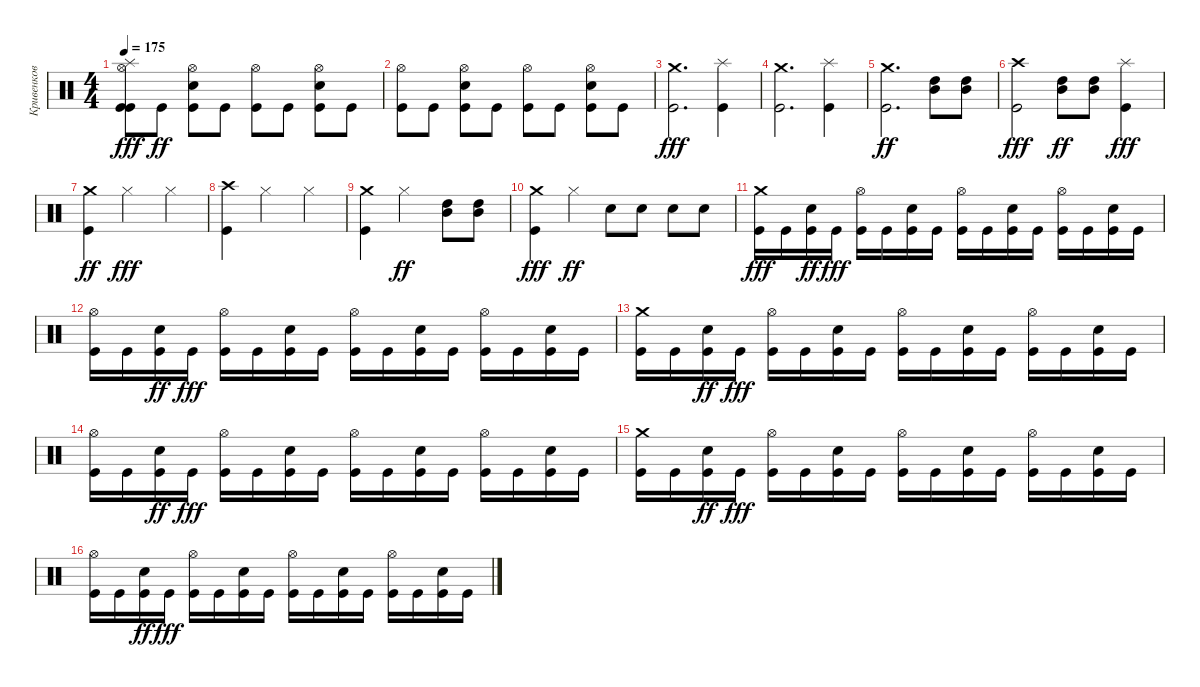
\track ("Кривенков" "Кривенков") {instrument percussion}
\staff {score}
\articulation defaults
\ts (4 4)
\tempo 175
\clef neutral
\ks c
("Hi-Hat (open)" "Kick (hit)" "Splash (hit)" "Kick (hit)").8{dy fff} "Kick (hit)".8{dy ff} ("Hi-Hat (open)" "Snare (hit) 2" "Kick (hit)").8 "Kick (hit)".8 ("Hi-Hat (open)" "Kick (hit)").8 "Kick (hit)".8 ("Hi-Hat (open)" "Snare (hit) 2" "Kick (hit)").8 "Kick (hit)".8 |
("Hi-Hat (open)" "Kick (hit)").8 "Kick (hit)".8 ("Hi-Hat (open)" "Snare (hit) 2" "Kick (hit)").8 "Kick (hit)".8 ("Hi-Hat (open)" "Kick (hit)").8 "Kick (hit)".8 ("Hi-Hat (open)" "Snare (hit) 2" "Kick (hit)").8 "Kick (hit)".8 |
("Crash medium (hit)" "Kick (hit)").2{d dy fff} ("Splash (hit)" "Kick (hit)").4 |
("Crash medium (hit)" "Kick (hit)").2{d} ("Splash (hit)" "Kick (hit)").4 |
("Kick (hit)" "Crash medium (hit)").2{d dy ff} ("Mid Tom (hit)" "High Tom (hit)").8 ("High Tom (hit)" "Mid Tom (hit)").8 |
("Crash high (hit)" "Kick (hit)").2{dy fff} ("High Tom (hit)" "Mid Tom (hit)").8{dy ff} ("High Tom (hit)" "Mid Tom (hit)").8 ("Splash (hit)" "Kick (hit)").4{dy fff} |
("Kick (hit)" "Crash medium (hit)").4{dy ff} "Hi-Hat (closed)".2{dy fff} "Hi-Hat (closed)".4 |
("Crash high (hit)" "Kick (hit)").4 "Hi-Hat (closed)".2 "Hi-Hat (closed)".4 |
("Crash medium (hit)" "Kick (hit)").4 "Hi-Hat (closed)".2{dy ff} ("High Tom (hit)" "Mid Tom (hit)").8 ("High Tom (hit)" "Mid Tom (hit)").8 |
("Crash medium (hit)" "Kick (hit)").4{dy fff} "Hi-Hat (closed)".4{dy ff} "Snare (hit) 2".8 "Snare (hit) 2".8 "Snare (hit) 2".8 "Snare (hit) 2".8 |
("Crash medium (hit)" "Kick (hit)").16{dy fff} "Kick (hit)".16 ("Kick (hit)" "Snare (hit) 2").16{dy ff} "Kick (hit)".16{dy fff} ("Hi-Hat (open)" "Kick (hit)").16 "Kick (hit)".16 ("Snare (hit) 2" "Kick (hit)").16 "Kick (hit)".16 ("Hi-Hat (open)" "Kick (hit)").16 "Kick (hit)".16 ("Snare (hit) 2" "Kick (hit)").16 "Kick (hit)".16 ("Hi-Hat (open)" "Kick (hit)").16 "Kick (hit)".16 ("Snare (hit) 2" "Kick (hit)").16 "Kick (hit)".16 |
("Hi-Hat (open)" "Kick (hit)").16 "Kick (hit)".16 ("Kick (hit)" "Snare (hit) 2").16{dy ff} "Kick (hit)".16{dy fff} ("Hi-Hat (open)" "Kick (hit)").16 "Kick (hit)".16 ("Snare (hit) 2" "Kick (hit)").16 "Kick (hit)".16 ("Hi-Hat (open)" "Kick (hit)").16 "Kick (hit)".16 ("Snare (hit) 2" "Kick (hit)").16 "Kick (hit)".16 ("Hi-Hat (open)" "Kick (hit)").16 "Kick (hit)".16 ("Snare (hit) 2" "Kick (hit)").16 "Kick (hit)".16 |
("Crash medium (hit)" "Kick (hit)").16 "Kick (hit)".16 ("Kick (hit)" "Snare (hit) 2").16{dy ff} "Kick (hit)".16{dy fff} ("Hi-Hat (open)" "Kick (hit)").16 "Kick (hit)".16 ("Snare (hit) 2" "Kick (hit)").16 "Kick (hit)".16 ("Hi-Hat (open)" "Kick (hit)").16 "Kick (hit)".16 ("Snare (hit) 2" "Kick (hit)").16 "Kick (hit)".16 ("Hi-Hat (open)" "Kick (hit)").16 "Kick (hit)".16 ("Snare (hit) 2" "Kick (hit)").16 "Kick (hit)".16 |
("Hi-Hat (open)" "Kick (hit)").16 "Kick (hit)".16 ("Kick (hit)" "Snare (hit) 2").16{dy ff} "Kick (hit)".16{dy fff} ("Hi-Hat (open)" "Kick (hit)").16 "Kick (hit)".16 ("Snare (hit) 2" "Kick (hit)").16 "Kick (hit)".16 ("Hi-Hat (open)" "Kick (hit)").16 "Kick (hit)".16 ("Snare (hit) 2" "Kick (hit)").16 "Kick (hit)".16 ("Hi-Hat (open)" "Kick (hit)").16 "Kick (hit)".16 ("Snare (hit) 2" "Kick (hit)").16 "Kick (hit)".16 |
("Crash medium (hit)" "Kick (hit)").16 "Kick (hit)".16 ("Kick (hit)" "Snare (hit) 2").16{dy ff} "Kick (hit)".16{dy fff} ("Hi-Hat (open)" "Kick (hit)").16 "Kick (hit)".16 ("Snare (hit) 2" "Kick (hit)").16 "Kick (hit)".16 ("Hi-Hat (open)" "Kick (hit)").16 "Kick (hit)".16 ("Snare (hit) 2" "Kick (hit)").16 "Kick (hit)".16 ("Hi-Hat (open)" "Kick (hit)").16 "Kick (hit)".16 ("Snare (hit) 2" "Kick (hit)").16 "Kick (hit)".16 |
("Hi-Hat (open)" "Kick (hit)").16 "Kick (hit)".16 ("Kick (hit)" "Snare (hit) 2").16{dy ff} "Kick (hit)".16{dy fff} ("Hi-Hat (open)" "Kick (hit)").16 "Kick (hit)".16 ("Snare (hit) 2" "Kick (hit)").16 "Kick (hit)".16 ("Hi-Hat (open)" "Kick (hit)").16 "Kick (hit)".16 ("Snare (hit) 2" "Kick (hit)").16 "Kick (hit)".16 ("Hi-Hat (open)" "Kick (hit)").16 "Kick (hit)".16 ("Snare (hit) 2" "Kick (hit)").16 "Kick (hit)".16
